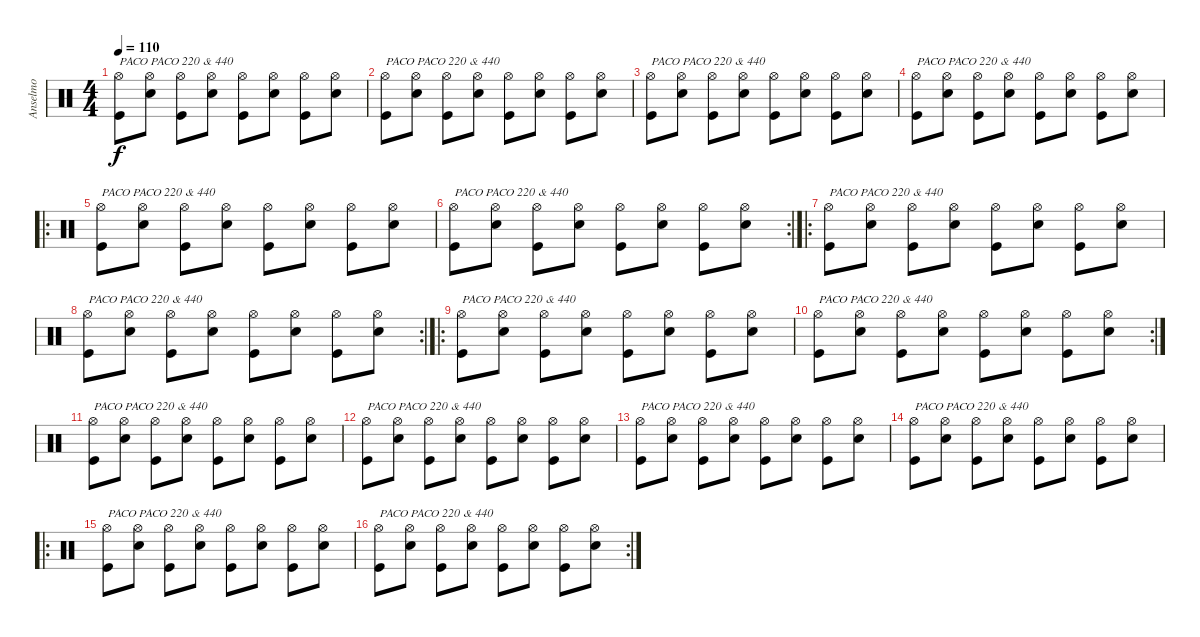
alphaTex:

\track ("Anselmo" "Anselmo") {instrument percussion}
\staff {score}
\articulation defaults
\ts (4 4)
\tempo 110
\clef neutral
\ks c
("Kick (hit)" "Hi-Hat (open)").8{txt "PACO PACO 220 & 440" dy f} ("Electric Snare (hit)" "Hi-Hat (open)").8 ("Kick (hit)" "Hi-Hat (open)").8 ("Electric Snare (hit)" "Hi-Hat (open)").8 ("Kick (hit)" "Hi-Hat (open)").8 ("Electric Snare (hit)" "Hi-Hat (open)").8 ("Kick (hit)" "Hi-Hat (open)").8 ("Electric Snare (hit)" "Hi-Hat (open)").8 |
("Kick (hit)" "Hi-Hat (open)").8{txt "PACO PACO 220 & 440"} ("Electric Snare (hit)" "Hi-Hat (open)").8 ("Kick (hit)" "Hi-Hat (open)").8 ("Electric Snare (hit)" "Hi-Hat (open)").8 ("Kick (hit)" "Hi-Hat (open)").8 ("Electric Snare (hit)" "Hi-Hat (open)").8 ("Kick (hit)" "Hi-Hat (open)").8 ("Electric Snare (hit)" "Hi-Hat (open)").8 |
("Kick (hit)" "Hi-Hat (open)").8{txt "PACO PACO 220 & 440"} ("Electric Snare (hit)" "Hi-Hat (open)").8 ("Kick (hit)" "Hi-Hat (open)").8 ("Electric Snare (hit)" "Hi-Hat (open)").8 ("Kick (hit)" "Hi-Hat (open)").8 ("Electric Snare (hit)" "Hi-Hat (open)").8 ("Kick (hit)" "Hi-Hat (open)").8 ("Electric Snare (hit)" "Hi-Hat (open)").8 |
("Kick (hit)" "Hi-Hat (open)").8{txt "PACO PACO 220 & 440"} ("Electric Snare (hit)" "Hi-Hat (open)").8 ("Kick (hit)" "Hi-Hat (open)").8 ("Electric Snare (hit)" "Hi-Hat (open)").8 ("Kick (hit)" "Hi-Hat (open)").8 ("Electric Snare (hit)" "Hi-Hat (open)").8 ("Kick (hit)" "Hi-Hat (open)").8 ("Electric Snare (hit)" "Hi-Hat (open)").8 |
\ro
("Kick (hit)" "Hi-Hat (open)").8{txt "PACO PACO 220 & 440"} ("Electric Snare (hit)" "Hi-Hat (open)").8 ("Kick (hit)" "Hi-Hat (open)").8 ("Electric Snare (hit)" "Hi-Hat (open)").8 ("Kick (hit)" "Hi-Hat (open)").8 ("Electric Snare (hit)" "Hi-Hat (open)").8 ("Kick (hit)" "Hi-Hat (open)").8 ("Electric Snare (hit)" "Hi-Hat (open)").8 |
\rc 2
("Kick (hit)" "Hi-Hat (open)").8{txt "PACO PACO 220 & 440"} ("Electric Snare (hit)" "Hi-Hat (open)").8 ("Kick (hit)" "Hi-Hat (open)").8 ("Electric Snare (hit)" "Hi-Hat (open)").8 ("Kick (hit)" "Hi-Hat (open)").8 ("Electric Snare (hit)" "Hi-Hat (open)").8 ("Kick (hit)" "Hi-Hat (open)").8 ("Electric Snare (hit)" "Hi-Hat (open)").8 |
\ro
("Kick (hit)" "Hi-Hat (open)").8{txt "PACO PACO 220 & 440"} ("Electric Snare (hit)" "Hi-Hat (open)").8 ("Kick (hit)" "Hi-Hat (open)").8 ("Electric Snare (hit)" "Hi-Hat (open)").8 ("Kick (hit)" "Hi-Hat (open)").8 ("Electric Snare (hit)" "Hi-Hat (open)").8 ("Kick (hit)" "Hi-Hat (open)").8 ("Electric Snare (hit)" "Hi-Hat (open)").8 |
\rc 2
("Kick (hit)" "Hi-Hat (open)").8{txt "PACO PACO 220 & 440"} ("Electric Snare (hit)" "Hi-Hat (open)").8 ("Kick (hit)" "Hi-Hat (open)").8 ("Electric Snare (hit)" "Hi-Hat (open)").8 ("Kick (hit)" "Hi-Hat (open)").8 ("Electric Snare (hit)" "Hi-Hat (open)").8 ("Kick (hit)" "Hi-Hat (open)").8 ("Electric Snare (hit)" "Hi-Hat (open)").8 |
\ro
("Kick (hit)" "Hi-Hat (open)").8{txt "PACO PACO 220 & 440"} ("Electric Snare (hit)" "Hi-Hat (open)").8 ("Kick (hit)" "Hi-Hat (open)").8 ("Electric Snare (hit)" "Hi-Hat (open)").8 ("Kick (hit)" "Hi-Hat (open)").8 ("Electric Snare (hit)" "Hi-Hat (open)").8 ("Kick (hit)" "Hi-Hat (open)").8 ("Electric Snare (hit)" "Hi-Hat (open)").8 |
\rc 2
("Kick (hit)" "Hi-Hat (open)").8{txt "PACO PACO 220 & 440"} ("Electric Snare (hit)" "Hi-Hat (open)").8 ("Kick (hit)" "Hi-Hat (open)").8 ("Electric Snare (hit)" "Hi-Hat (open)").8 ("Kick (hit)" "Hi-Hat (open)").8 ("Electric Snare (hit)" "Hi-Hat (open)").8 ("Kick (hit)" "Hi-Hat (open)").8 ("Electric Snare (hit)" "Hi-Hat (open)").8 |
("Kick (hit)" "Hi-Hat (open)").8{txt "PACO PACO 220 & 440"} ("Electric Snare (hit)" "Hi-Hat (open)").8 ("Kick (hit)" "Hi-Hat (open)").8 ("Electric Snare (hit)" "Hi-Hat (open)").8 ("Kick (hit)" "Hi-Hat (open)").8 ("Electric Snare (hit)" "Hi-Hat (open)").8 ("Kick (hit)" "Hi-Hat (open)").8 ("Electric Snare (hit)" "Hi-Hat (open)").8 |
("Kick (hit)" "Hi-Hat (open)").8{txt "PACO PACO 220 & 440"} ("Electric Snare (hit)" "Hi-Hat (open)").8 ("Kick (hit)" "Hi-Hat (open)").8 ("Electric Snare (hit)" "Hi-Hat (open)").8 ("Kick (hit)" "Hi-Hat (open)").8 ("Electric Snare (hit)" "Hi-Hat (open)").8 ("Kick (hit)" "Hi-Hat (open)").8 ("Electric Snare (hit)" "Hi-Hat (open)").8 |
("Kick (hit)" "Hi-Hat (open)").8{txt "PACO PACO 220 & 440"} ("Electric Snare (hit)" "Hi-Hat (open)").8 ("Kick (hit)" "Hi-Hat (open)").8 ("Electric Snare (hit)" "Hi-Hat (open)").8 ("Kick (hit)" "Hi-Hat (open)").8 ("Electric Snare (hit)" "Hi-Hat (open)").8 ("Kick (hit)" "Hi-Hat (open)").8 ("Electric Snare (hit)" "Hi-Hat (open)").8 |
("Kick (hit)" "Hi-Hat (open)").8{txt "PACO PACO 220 & 440"} ("Electric Snare (hit)" "Hi-Hat (open)").8 ("Kick (hit)" "Hi-Hat (open)").8 ("Electric Snare (hit)" "Hi-Hat (open)").8 ("Kick (hit)" "Hi-Hat (open)").8 ("Electric Snare (hit)" "Hi-Hat (open)").8 ("Kick (hit)" "Hi-Hat (open)").8 ("Electric Snare (hit)" "Hi-Hat (open)").8 |
\ro
("Kick (hit)" "Hi-Hat (open)").8{txt "PACO PACO 220 & 440"} ("Electric Snare (hit)" "Hi-Hat (open)").8 ("Kick (hit)" "Hi-Hat (open)").8 ("Electric Snare (hit)" "Hi-Hat (open)").8 ("Kick (hit)" "Hi-Hat (open)").8 ("Electric Snare (hit)" "Hi-Hat (open)").8 ("Kick (hit)" "Hi-Hat (open)").8 ("Electric Snare (hit)" "Hi-Hat (open)").8 |
\rc 2
("Kick (hit)" "Hi-Hat (open)").8{txt "PACO PACO 220 & 440"} ("Electric Snare (hit)" "Hi-Hat (open)").8 ("Kick (hit)" "Hi-Hat (open)").8 ("Electric Snare (hit)" "Hi-Hat (open)").8 ("Kick (hit)" "Hi-Hat (open)").8 ("Electric Snare (hit)" "Hi-Hat (open)").8 ("Kick (hit)" "Hi-Hat (open)").8 ("Electric Snare (hit)" "Hi-Hat (open)").8
